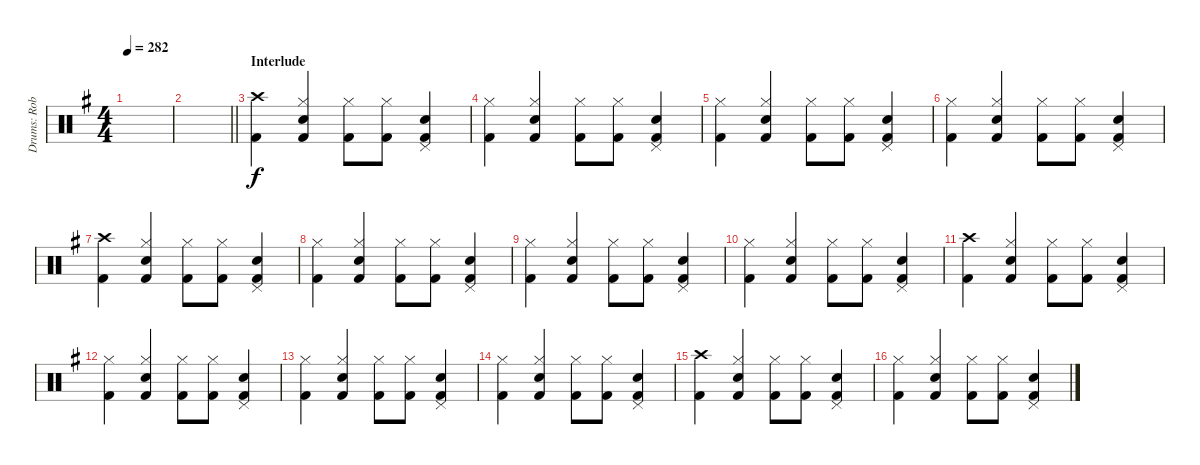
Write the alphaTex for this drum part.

\track ("Drums: Rob" "Drums: Rob") {instrument percussion}
\staff {score}
\articulation defaults
\ts (4 4)
\tempo 282
\clef neutral
\ks g
|
\barLineRight lightlight
|
\section ("" "Interlude")
("Crash high (hit)" "Kick (hit) 2").4 ("Hi-Hat (closed)" "Snare (hit) 2" "Kick (hit) 2").4 ("Hi-Hat (closed)" "Kick (hit) 2").8 ("Hi-Hat (closed)" "Kick (hit) 2").8 ("Pedal Hi-Hat (hit)" "Snare (hit) 2" "Kick (hit) 2").4 |
("Hi-Hat (closed)" "Kick (hit) 2").4 ("Hi-Hat (closed)" "Snare (hit) 2" "Kick (hit) 2").4 ("Hi-Hat (closed)" "Kick (hit) 2").8 ("Hi-Hat (closed)" "Kick (hit) 2").8 ("Pedal Hi-Hat (hit)" "Snare (hit) 2" "Kick (hit) 2").4 |
("Hi-Hat (closed)" "Kick (hit) 2").4 ("Hi-Hat (closed)" "Snare (hit) 2" "Kick (hit) 2").4 ("Hi-Hat (closed)" "Kick (hit) 2").8 ("Hi-Hat (closed)" "Kick (hit) 2").8 ("Pedal Hi-Hat (hit)" "Snare (hit) 2" "Kick (hit) 2").4 |
("Hi-Hat (closed)" "Kick (hit) 2").4 ("Hi-Hat (closed)" "Snare (hit) 2" "Kick (hit) 2").4 ("Hi-Hat (closed)" "Kick (hit) 2").8 ("Hi-Hat (closed)" "Kick (hit) 2").8 ("Pedal Hi-Hat (hit)" "Snare (hit) 2" "Kick (hit) 2").4 |
("Crash high (hit)" "Kick (hit) 2").4 ("Hi-Hat (closed)" "Snare (hit) 2" "Kick (hit) 2").4 ("Hi-Hat (closed)" "Kick (hit) 2").8 ("Hi-Hat (closed)" "Kick (hit) 2").8 ("Pedal Hi-Hat (hit)" "Snare (hit) 2" "Kick (hit) 2").4 |
("Hi-Hat (closed)" "Kick (hit) 2").4 ("Hi-Hat (closed)" "Snare (hit) 2" "Kick (hit) 2").4 ("Hi-Hat (closed)" "Kick (hit) 2").8 ("Hi-Hat (closed)" "Kick (hit) 2").8 ("Pedal Hi-Hat (hit)" "Snare (hit) 2" "Kick (hit) 2").4 |
("Hi-Hat (closed)" "Kick (hit) 2").4 ("Hi-Hat (closed)" "Snare (hit) 2" "Kick (hit) 2").4 ("Hi-Hat (closed)" "Kick (hit) 2").8 ("Hi-Hat (closed)" "Kick (hit) 2").8 ("Pedal Hi-Hat (hit)" "Snare (hit) 2" "Kick (hit) 2").4 |
("Hi-Hat (closed)" "Kick (hit) 2").4 ("Hi-Hat (closed)" "Snare (hit) 2" "Kick (hit) 2").4 ("Hi-Hat (closed)" "Kick (hit) 2").8 ("Hi-Hat (closed)" "Kick (hit) 2").8 ("Pedal Hi-Hat (hit)" "Snare (hit) 2" "Kick (hit) 2").4 |
("Crash high (hit)" "Kick (hit) 2").4 ("Hi-Hat (closed)" "Snare (hit) 2" "Kick (hit) 2").4 ("Hi-Hat (closed)" "Kick (hit) 2").8 ("Hi-Hat (closed)" "Kick (hit) 2").8 ("Pedal Hi-Hat (hit)" "Snare (hit) 2" "Kick (hit) 2").4 |
("Hi-Hat (closed)" "Kick (hit) 2").4 ("Hi-Hat (closed)" "Snare (hit) 2" "Kick (hit) 2").4 ("Hi-Hat (closed)" "Kick (hit) 2").8 ("Hi-Hat (closed)" "Kick (hit) 2").8 ("Pedal Hi-Hat (hit)" "Snare (hit) 2" "Kick (hit) 2").4 |
("Hi-Hat (closed)" "Kick (hit) 2").4 ("Hi-Hat (closed)" "Snare (hit) 2" "Kick (hit) 2").4 ("Hi-Hat (closed)" "Kick (hit) 2").8 ("Hi-Hat (closed)" "Kick (hit) 2").8 ("Pedal Hi-Hat (hit)" "Snare (hit) 2" "Kick (hit) 2").4 |
("Hi-Hat (closed)" "Kick (hit) 2").4 ("Hi-Hat (closed)" "Snare (hit) 2" "Kick (hit) 2").4 ("Hi-Hat (closed)" "Kick (hit) 2").8 ("Hi-Hat (closed)" "Kick (hit) 2").8 ("Pedal Hi-Hat (hit)" "Snare (hit) 2" "Kick (hit) 2").4 |
("Crash high (hit)" "Kick (hit) 2").4 ("Hi-Hat (closed)" "Snare (hit) 2" "Kick (hit) 2").4 ("Hi-Hat (closed)" "Kick (hit) 2").8 ("Hi-Hat (closed)" "Kick (hit) 2").8 ("Pedal Hi-Hat (hit)" "Snare (hit) 2" "Kick (hit) 2").4 |
("Hi-Hat (closed)" "Kick (hit) 2").4 ("Hi-Hat (closed)" "Snare (hit) 2" "Kick (hit) 2").4 ("Hi-Hat (closed)" "Kick (hit) 2").8 ("Hi-Hat (closed)" "Kick (hit) 2").8 ("Pedal Hi-Hat (hit)" "Snare (hit) 2" "Kick (hit) 2").4
